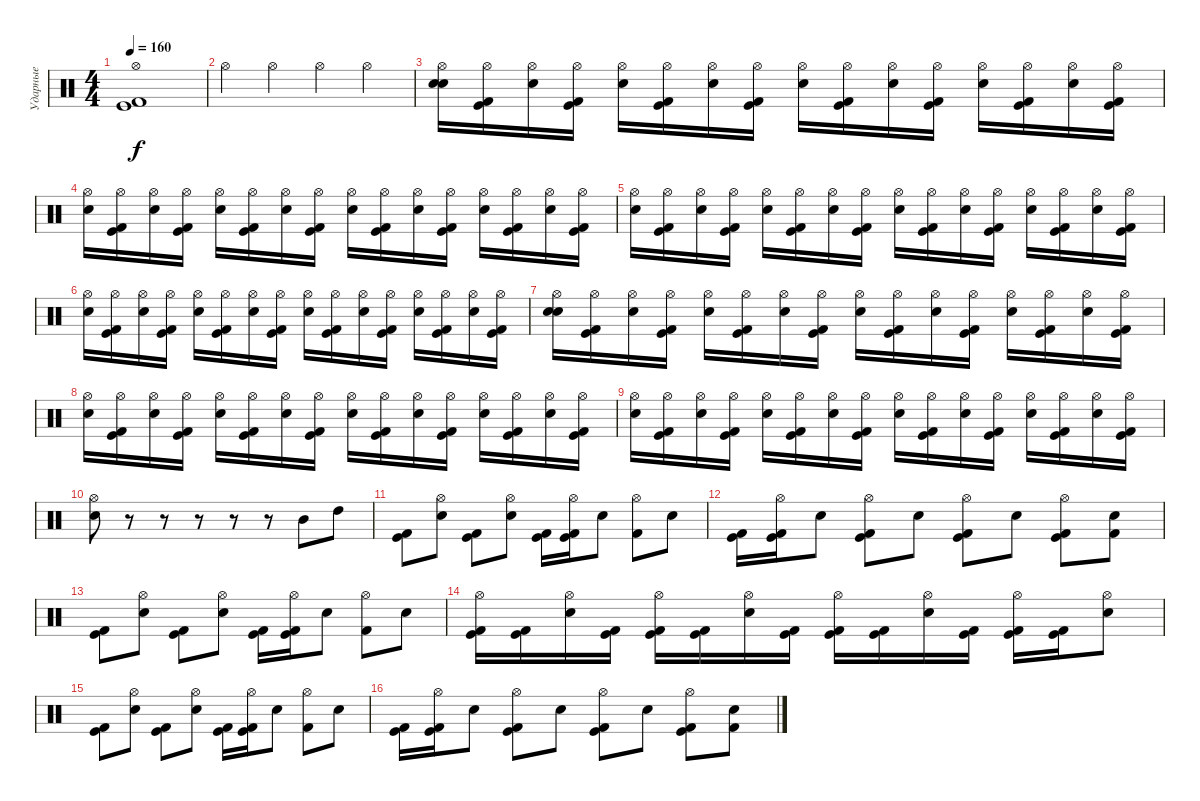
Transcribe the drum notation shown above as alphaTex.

\track ("Ударные" "Ударные") {instrument percussion}
\staff {score}
\articulation defaults
\ts (4 4)
\tempo 160
\clef neutral
\ks c
("Hi-Hat (open)" "Kick (hit) 2" "Kick (hit)").1{dy f} |
"Hi-Hat (open)".4 "Hi-Hat (open)".4 "Hi-Hat (open)".4 "Hi-Hat (open)".4 |
("Hi-Hat (open)" "Electric Snare (hit)" "Electric Snare (hit)").16 ("Hi-Hat (open)" "Kick (hit) 2" "Kick (hit)").16 ("Hi-Hat (open)" "Electric Snare (hit)").16 ("Hi-Hat (open)" "Kick (hit) 2" "Kick (hit)").16 ("Hi-Hat (open)" "Electric Snare (hit)").16 ("Hi-Hat (open)" "Kick (hit) 2" "Kick (hit)").16 ("Hi-Hat (open)" "Electric Snare (hit)").16 ("Hi-Hat (open)" "Kick (hit) 2" "Kick (hit)").16 ("Hi-Hat (open)" "Electric Snare (hit)").16 ("Hi-Hat (open)" "Kick (hit) 2" "Kick (hit)").16 ("Hi-Hat (open)" "Electric Snare (hit)").16 ("Hi-Hat (open)" "Kick (hit) 2" "Kick (hit)").16 ("Hi-Hat (open)" "Electric Snare (hit)").16 ("Hi-Hat (open)" "Kick (hit) 2" "Kick (hit)").16 ("Hi-Hat (open)" "Electric Snare (hit)").16 ("Hi-Hat (open)" "Kick (hit) 2" "Kick (hit)").16 |
("Hi-Hat (open)" "Electric Snare (hit)").16 ("Hi-Hat (open)" "Kick (hit) 2" "Kick (hit)").16 ("Hi-Hat (open)" "Electric Snare (hit)").16 ("Hi-Hat (open)" "Kick (hit) 2" "Kick (hit)").16 ("Hi-Hat (open)" "Electric Snare (hit)").16 ("Hi-Hat (open)" "Kick (hit) 2" "Kick (hit)").16 ("Hi-Hat (open)" "Electric Snare (hit)").16 ("Hi-Hat (open)" "Kick (hit) 2" "Kick (hit)").16 ("Hi-Hat (open)" "Electric Snare (hit)").16 ("Hi-Hat (open)" "Kick (hit) 2" "Kick (hit)").16 ("Hi-Hat (open)" "Electric Snare (hit)").16 ("Hi-Hat (open)" "Kick (hit) 2" "Kick (hit)").16 ("Hi-Hat (open)" "Electric Snare (hit)").16 ("Hi-Hat (open)" "Kick (hit) 2" "Kick (hit)").16 ("Hi-Hat (open)" "Electric Snare (hit)").16 ("Hi-Hat (open)" "Kick (hit) 2" "Kick (hit)").16 |
("Hi-Hat (open)" "Electric Snare (hit)").16 ("Hi-Hat (open)" "Kick (hit) 2" "Kick (hit)").16 ("Hi-Hat (open)" "Electric Snare (hit)").16 ("Hi-Hat (open)" "Kick (hit) 2" "Kick (hit)").16 ("Hi-Hat (open)" "Electric Snare (hit)").16 ("Hi-Hat (open)" "Kick (hit) 2" "Kick (hit)").16 ("Hi-Hat (open)" "Electric Snare (hit)").16 ("Hi-Hat (open)" "Kick (hit) 2" "Kick (hit)").16 ("Hi-Hat (open)" "Electric Snare (hit)").16 ("Hi-Hat (open)" "Kick (hit) 2" "Kick (hit)").16 ("Hi-Hat (open)" "Electric Snare (hit)").16 ("Hi-Hat (open)" "Kick (hit) 2" "Kick (hit)").16 ("Hi-Hat (open)" "Electric Snare (hit)").16 ("Hi-Hat (open)" "Kick (hit) 2" "Kick (hit)").16 ("Hi-Hat (open)" "Electric Snare (hit)").16 ("Hi-Hat (open)" "Kick (hit) 2" "Kick (hit)").16 |
("Hi-Hat (open)" "Electric Snare (hit)").16 ("Hi-Hat (open)" "Kick (hit) 2" "Kick (hit)").16 ("Hi-Hat (open)" "Electric Snare (hit)").16 ("Hi-Hat (open)" "Kick (hit) 2" "Kick (hit)").16 ("Hi-Hat (open)" "Electric Snare (hit)").16 ("Hi-Hat (open)" "Kick (hit) 2" "Kick (hit)").16 ("Hi-Hat (open)" "Electric Snare (hit)").16 ("Hi-Hat (open)" "Kick (hit) 2" "Kick (hit)").16 ("Hi-Hat (open)" "Electric Snare (hit)").16 ("Hi-Hat (open)" "Kick (hit) 2" "Kick (hit)").16 ("Hi-Hat (open)" "Electric Snare (hit)").16 ("Hi-Hat (open)" "Kick (hit) 2" "Kick (hit)").16 ("Hi-Hat (open)" "Electric Snare (hit)").16 ("Hi-Hat (open)" "Kick (hit) 2" "Kick (hit)").16 ("Hi-Hat (open)" "Electric Snare (hit)").16 ("Hi-Hat (open)" "Kick (hit) 2" "Kick (hit)").16 |
("Hi-Hat (open)" "Electric Snare (hit)" "Electric Snare (hit)").16 ("Hi-Hat (open)" "Kick (hit) 2" "Kick (hit)").16 ("Hi-Hat (open)" "Electric Snare (hit)").16 ("Hi-Hat (open)" "Kick (hit) 2" "Kick (hit)").16 ("Hi-Hat (open)" "Electric Snare (hit)").16 ("Hi-Hat (open)" "Kick (hit) 2" "Kick (hit)").16 ("Hi-Hat (open)" "Electric Snare (hit)").16 ("Hi-Hat (open)" "Kick (hit) 2" "Kick (hit)").16 ("Hi-Hat (open)" "Electric Snare (hit)").16 ("Hi-Hat (open)" "Kick (hit) 2" "Kick (hit)").16 ("Hi-Hat (open)" "Electric Snare (hit)").16 ("Hi-Hat (open)" "Kick (hit) 2" "Kick (hit)").16 ("Hi-Hat (open)" "Electric Snare (hit)").16 ("Hi-Hat (open)" "Kick (hit) 2" "Kick (hit)").16 ("Hi-Hat (open)" "Electric Snare (hit)").16 ("Hi-Hat (open)" "Kick (hit) 2" "Kick (hit)").16 |
("Hi-Hat (open)" "Electric Snare (hit)").16 ("Hi-Hat (open)" "Kick (hit) 2" "Kick (hit)").16 ("Hi-Hat (open)" "Electric Snare (hit)").16 ("Hi-Hat (open)" "Kick (hit) 2" "Kick (hit)").16 ("Hi-Hat (open)" "Electric Snare (hit)").16 ("Hi-Hat (open)" "Kick (hit) 2" "Kick (hit)").16 ("Hi-Hat (open)" "Electric Snare (hit)").16 ("Hi-Hat (open)" "Kick (hit) 2" "Kick (hit)").16 ("Hi-Hat (open)" "Electric Snare (hit)").16 ("Hi-Hat (open)" "Kick (hit) 2" "Kick (hit)").16 ("Hi-Hat (open)" "Electric Snare (hit)").16 ("Hi-Hat (open)" "Kick (hit) 2" "Kick (hit)").16 ("Hi-Hat (open)" "Electric Snare (hit)").16 ("Hi-Hat (open)" "Kick (hit) 2" "Kick (hit)").16 ("Hi-Hat (open)" "Electric Snare (hit)").16 ("Hi-Hat (open)" "Kick (hit) 2" "Kick (hit)").16 |
("Hi-Hat (open)" "Electric Snare (hit)").16 ("Hi-Hat (open)" "Kick (hit) 2" "Kick (hit)").16 ("Hi-Hat (open)" "Electric Snare (hit)").16 ("Hi-Hat (open)" "Kick (hit) 2" "Kick (hit)").16 ("Hi-Hat (open)" "Electric Snare (hit)").16 ("Hi-Hat (open)" "Kick (hit) 2" "Kick (hit)").16 ("Hi-Hat (open)" "Electric Snare (hit)").16 ("Hi-Hat (open)" "Kick (hit) 2" "Kick (hit)").16 ("Hi-Hat (open)" "Electric Snare (hit)").16 ("Hi-Hat (open)" "Kick (hit) 2" "Kick (hit)").16 ("Hi-Hat (open)" "Electric Snare (hit)").16 ("Hi-Hat (open)" "Kick (hit) 2" "Kick (hit)").16 ("Hi-Hat (open)" "Electric Snare (hit)").16 ("Hi-Hat (open)" "Kick (hit) 2" "Kick (hit)").16 ("Hi-Hat (open)" "Electric Snare (hit)").16 ("Hi-Hat (open)" "Kick (hit) 2" "Kick (hit)").16 |
("Hi-Hat (open)" "Electric Snare (hit)").8 r.8 r.8 r.8 r.8 r.8 "Mid Tom (hit)".8 "High Tom (hit)".8 |
("Kick (hit) 2" "Kick (hit)").8 ("Hi-Hat (open)" "Electric Snare (hit)").8 ("Kick (hit) 2" "Kick (hit)").8 ("Hi-Hat (open)" "Electric Snare (hit)").8 ("Kick (hit) 2" "Kick (hit)").16 ("Hi-Hat (open)" "Kick (hit) 2" "Kick (hit)").16 "Electric Snare (hit)".8 ("Hi-Hat (open)" "Kick (hit) 2").8 "Electric Snare (hit)".8 |
("Kick (hit) 2" "Kick (hit)").16 ("Hi-Hat (open)" "Kick (hit) 2" "Kick (hit)").16 "Electric Snare (hit)".8 ("Hi-Hat (open)" "Kick (hit) 2" "Kick (hit)").8 "Electric Snare (hit)".8 ("Hi-Hat (open)" "Kick (hit) 2" "Kick (hit)").8 "Electric Snare (hit)".8 ("Hi-Hat (open)" "Kick (hit) 2" "Kick (hit)").8 ("Kick (hit) 2" "Electric Snare (hit)").8 |
("Kick (hit) 2" "Kick (hit)").8 ("Hi-Hat (open)" "Electric Snare (hit)").8 ("Kick (hit) 2" "Kick (hit)").8 ("Hi-Hat (open)" "Electric Snare (hit)").8 ("Kick (hit) 2" "Kick (hit)").16 ("Hi-Hat (open)" "Kick (hit) 2" "Kick (hit)").16 "Electric Snare (hit)".8 ("Hi-Hat (open)" "Kick (hit) 2").8 "Electric Snare (hit)".8 |
("Hi-Hat (open)" "Kick (hit) 2" "Kick (hit)").16 ("Kick (hit) 2" "Kick (hit)").16 ("Hi-Hat (open)" "Electric Snare (hit)").16 ("Kick (hit) 2" "Kick (hit)").16 ("Hi-Hat (open)" "Kick (hit) 2" "Kick (hit)").16 ("Kick (hit) 2" "Kick (hit)").16 ("Hi-Hat (open)" "Electric Snare (hit)").16 ("Kick (hit) 2" "Kick (hit)").16 ("Hi-Hat (open)" "Kick (hit) 2" "Kick (hit)").16 ("Kick (hit) 2" "Kick (hit)").16 ("Hi-Hat (open)" "Electric Snare (hit)").16 ("Kick (hit) 2" "Kick (hit)").16 ("Hi-Hat (open)" "Kick (hit) 2" "Kick (hit)").16 ("Kick (hit) 2" "Kick (hit)").16 ("Hi-Hat (open)" "Electric Snare (hit)").8 |
("Kick (hit) 2" "Kick (hit)").8 ("Hi-Hat (open)" "Electric Snare (hit)").8 ("Kick (hit) 2" "Kick (hit)").8 ("Hi-Hat (open)" "Electric Snare (hit)").8 ("Kick (hit) 2" "Kick (hit)").16 ("Hi-Hat (open)" "Kick (hit) 2" "Kick (hit)").16 "Electric Snare (hit)".8 ("Hi-Hat (open)" "Kick (hit) 2").8 "Electric Snare (hit)".8 |
("Kick (hit) 2" "Kick (hit)").16 ("Hi-Hat (open)" "Kick (hit) 2" "Kick (hit)").16 "Electric Snare (hit)".8 ("Hi-Hat (open)" "Kick (hit) 2" "Kick (hit)").8 "Electric Snare (hit)".8 ("Hi-Hat (open)" "Kick (hit) 2" "Kick (hit)").8 "Electric Snare (hit)".8 ("Hi-Hat (open)" "Kick (hit) 2" "Kick (hit)").8 ("Kick (hit) 2" "Electric Snare (hit)").8
